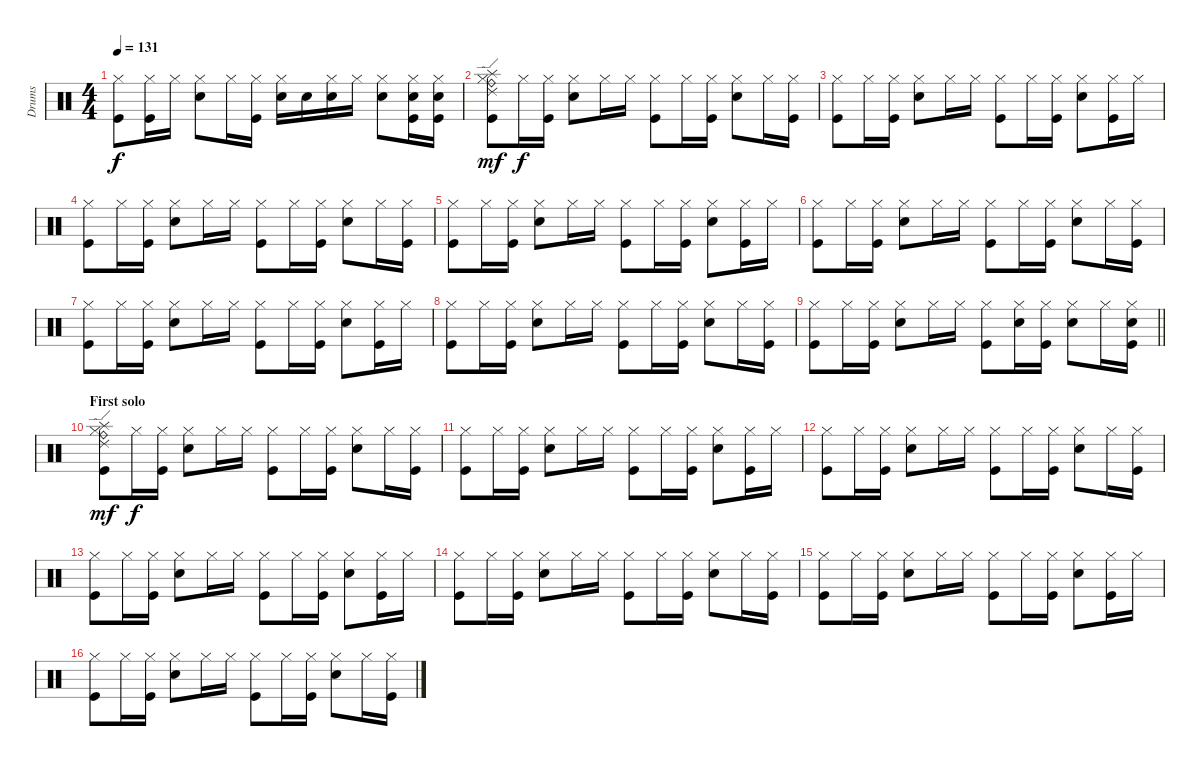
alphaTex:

\track ("Drums" "Drums") {instrument percussion}
\staff {score}
\articulation defaults
\ts (4 4)
\tempo 131
\clef neutral
\ks c
("Hi-Hat (closed)" "Kick (hit)").8{dy f} ("Hi-Hat (closed)" "Kick (hit)").16 "Hi-Hat (closed)".16 ("Hi-Hat (closed)" "Electric Snare (hit)").8 "Hi-Hat (closed)".16 ("Hi-Hat (closed)" "Kick (hit)").16 ("Hi-Hat (closed)" "Electric Snare (hit)").16 "Electric Snare (hit)".16 ("Hi-Hat (closed)" "Electric Snare (hit)").16 "Hi-Hat (closed)".16 ("Hi-Hat (closed)" "Electric Snare (hit)").8 ("Hi-Hat (closed)" "Electric Snare (hit)" "Kick (hit)").16 ("Hi-Hat (closed)" "Electric Snare (hit)" "Kick (hit)").16 |
("Hi-Hat (closed)" "Splash (hit)" "Ride (bell)" "Ride (edge) 2" "Kick (hit)").8{dy mf} "Hi-Hat (closed)".16{dy f} ("Hi-Hat (closed)" "Kick (hit)").16 ("Hi-Hat (closed)" "Electric Snare (hit)").8 "Hi-Hat (closed)".16 "Hi-Hat (closed)".16 ("Hi-Hat (closed)" "Kick (hit)").8 "Hi-Hat (closed)".16 ("Hi-Hat (closed)" "Kick (hit)").16 ("Hi-Hat (closed)" "Electric Snare (hit)").8 "Hi-Hat (closed)".16 ("Hi-Hat (closed)" "Kick (hit)").16 |
("Hi-Hat (closed)" "Kick (hit)").8 "Hi-Hat (closed)".16 ("Hi-Hat (closed)" "Kick (hit)").16 ("Hi-Hat (closed)" "Electric Snare (hit)").8 "Hi-Hat (closed)".16 "Hi-Hat (closed)".16 ("Hi-Hat (closed)" "Kick (hit)").8 "Hi-Hat (closed)".16 ("Hi-Hat (closed)" "Kick (hit)").16 ("Hi-Hat (closed)" "Electric Snare (hit)").8 ("Hi-Hat (closed)" "Kick (hit)").16 "Hi-Hat (closed)".16 |
("Hi-Hat (closed)" "Kick (hit)").8 "Hi-Hat (closed)".16 ("Hi-Hat (closed)" "Kick (hit)").16 ("Hi-Hat (closed)" "Electric Snare (hit)").8 "Hi-Hat (closed)".16 "Hi-Hat (closed)".16 ("Hi-Hat (closed)" "Kick (hit)").8 "Hi-Hat (closed)".16 ("Hi-Hat (closed)" "Kick (hit)").16 ("Hi-Hat (closed)" "Electric Snare (hit)").8 "Hi-Hat (closed)".16 ("Hi-Hat (closed)" "Kick (hit)").16 |
("Hi-Hat (closed)" "Kick (hit)").8 "Hi-Hat (closed)".16 ("Hi-Hat (closed)" "Kick (hit)").16 ("Hi-Hat (closed)" "Electric Snare (hit)").8 "Hi-Hat (closed)".16 "Hi-Hat (closed)".16 ("Hi-Hat (closed)" "Kick (hit)").8 "Hi-Hat (closed)".16 ("Hi-Hat (closed)" "Kick (hit)").16 ("Hi-Hat (closed)" "Electric Snare (hit)").8 ("Hi-Hat (closed)" "Kick (hit)").16 "Hi-Hat (closed)".16 |
("Hi-Hat (closed)" "Kick (hit)").8 "Hi-Hat (closed)".16 ("Hi-Hat (closed)" "Kick (hit)").16 ("Hi-Hat (closed)" "Electric Snare (hit)").8 "Hi-Hat (closed)".16 "Hi-Hat (closed)".16 ("Hi-Hat (closed)" "Kick (hit)").8 "Hi-Hat (closed)".16 ("Hi-Hat (closed)" "Kick (hit)").16 ("Hi-Hat (closed)" "Electric Snare (hit)").8 "Hi-Hat (closed)".16 ("Hi-Hat (closed)" "Kick (hit)").16 |
("Hi-Hat (closed)" "Kick (hit)").8 "Hi-Hat (closed)".16 ("Hi-Hat (closed)" "Kick (hit)").16 ("Hi-Hat (closed)" "Electric Snare (hit)").8 "Hi-Hat (closed)".16 "Hi-Hat (closed)".16 ("Hi-Hat (closed)" "Kick (hit)").8 "Hi-Hat (closed)".16 ("Hi-Hat (closed)" "Kick (hit)").16 ("Hi-Hat (closed)" "Electric Snare (hit)").8 ("Hi-Hat (closed)" "Kick (hit)").16 "Hi-Hat (closed)".16 |
("Hi-Hat (closed)" "Kick (hit)").8 "Hi-Hat (closed)".16 ("Hi-Hat (closed)" "Kick (hit)").16 ("Hi-Hat (closed)" "Electric Snare (hit)").8 "Hi-Hat (closed)".16 "Hi-Hat (closed)".16 ("Hi-Hat (closed)" "Kick (hit)").8 "Hi-Hat (closed)".16 ("Hi-Hat (closed)" "Kick (hit)").16 ("Hi-Hat (closed)" "Electric Snare (hit)").8 "Hi-Hat (closed)".16 ("Hi-Hat (closed)" "Kick (hit)").16 |
\barLineRight lightlight
("Hi-Hat (closed)" "Kick (hit)").8 "Hi-Hat (closed)".16 ("Hi-Hat (closed)" "Kick (hit)").16 ("Hi-Hat (closed)" "Electric Snare (hit)").8 "Hi-Hat (closed)".16 "Hi-Hat (closed)".16 ("Hi-Hat (closed)" "Kick (hit)").8 ("Hi-Hat (closed)" "Electric Snare (hit)").16 ("Hi-Hat (closed)" "Kick (hit)").16 ("Hi-Hat (closed)" "Electric Snare (hit)").8 "Hi-Hat (closed)".16 ("Hi-Hat (closed)" "Electric Snare (hit)" "Kick (hit)").16 |
\section ("" "First solo")
("Hi-Hat (closed)" "Splash (hit)" "Ride (bell)" "Ride (edge) 2" "Kick (hit)").8{dy mf} "Hi-Hat (closed)".16{dy f} ("Hi-Hat (closed)" "Kick (hit)").16 ("Hi-Hat (closed)" "Electric Snare (hit)").8 "Hi-Hat (closed)".16 "Hi-Hat (closed)".16 ("Hi-Hat (closed)" "Kick (hit)").8 "Hi-Hat (closed)".16 ("Hi-Hat (closed)" "Kick (hit)").16 ("Hi-Hat (closed)" "Electric Snare (hit)").8 "Hi-Hat (closed)".16 ("Hi-Hat (closed)" "Kick (hit)").16 |
("Hi-Hat (closed)" "Kick (hit)").8 "Hi-Hat (closed)".16 ("Hi-Hat (closed)" "Kick (hit)").16 ("Hi-Hat (closed)" "Electric Snare (hit)").8 "Hi-Hat (closed)".16 "Hi-Hat (closed)".16 ("Hi-Hat (closed)" "Kick (hit)").8 "Hi-Hat (closed)".16 ("Hi-Hat (closed)" "Kick (hit)").16 ("Hi-Hat (closed)" "Electric Snare (hit)").8 ("Hi-Hat (closed)" "Kick (hit)").16 "Hi-Hat (closed)".16 |
("Hi-Hat (closed)" "Kick (hit)").8 "Hi-Hat (closed)".16 ("Hi-Hat (closed)" "Kick (hit)").16 ("Hi-Hat (closed)" "Electric Snare (hit)").8 "Hi-Hat (closed)".16 "Hi-Hat (closed)".16 ("Hi-Hat (closed)" "Kick (hit)").8 "Hi-Hat (closed)".16 ("Hi-Hat (closed)" "Kick (hit)").16 ("Hi-Hat (closed)" "Electric Snare (hit)").8 "Hi-Hat (closed)".16 ("Hi-Hat (closed)" "Kick (hit)").16 |
("Hi-Hat (closed)" "Kick (hit)").8 "Hi-Hat (closed)".16 ("Hi-Hat (closed)" "Kick (hit)").16 ("Hi-Hat (closed)" "Electric Snare (hit)").8 "Hi-Hat (closed)".16 "Hi-Hat (closed)".16 ("Hi-Hat (closed)" "Kick (hit)").8 "Hi-Hat (closed)".16 ("Hi-Hat (closed)" "Kick (hit)").16 ("Hi-Hat (closed)" "Electric Snare (hit)").8 ("Hi-Hat (closed)" "Kick (hit)").16 "Hi-Hat (closed)".16 |
("Hi-Hat (closed)" "Kick (hit)").8 "Hi-Hat (closed)".16 ("Hi-Hat (closed)" "Kick (hit)").16 ("Hi-Hat (closed)" "Electric Snare (hit)").8 "Hi-Hat (closed)".16 "Hi-Hat (closed)".16 ("Hi-Hat (closed)" "Kick (hit)").8 "Hi-Hat (closed)".16 ("Hi-Hat (closed)" "Kick (hit)").16 ("Hi-Hat (closed)" "Electric Snare (hit)").8 "Hi-Hat (closed)".16 ("Hi-Hat (closed)" "Kick (hit)").16 |
("Hi-Hat (closed)" "Kick (hit)").8 "Hi-Hat (closed)".16 ("Hi-Hat (closed)" "Kick (hit)").16 ("Hi-Hat (closed)" "Electric Snare (hit)").8 "Hi-Hat (closed)".16 "Hi-Hat (closed)".16 ("Hi-Hat (closed)" "Kick (hit)").8 "Hi-Hat (closed)".16 ("Hi-Hat (closed)" "Kick (hit)").16 ("Hi-Hat (closed)" "Electric Snare (hit)").8 ("Hi-Hat (closed)" "Kick (hit)").16 "Hi-Hat (closed)".16 |
("Hi-Hat (closed)" "Kick (hit)").8 "Hi-Hat (closed)".16 ("Hi-Hat (closed)" "Kick (hit)").16 ("Hi-Hat (closed)" "Electric Snare (hit)").8 "Hi-Hat (closed)".16 "Hi-Hat (closed)".16 ("Hi-Hat (closed)" "Kick (hit)").8 "Hi-Hat (closed)".16 ("Hi-Hat (closed)" "Kick (hit)").16 ("Hi-Hat (closed)" "Electric Snare (hit)").8 "Hi-Hat (closed)".16 ("Hi-Hat (closed)" "Kick (hit)").16
